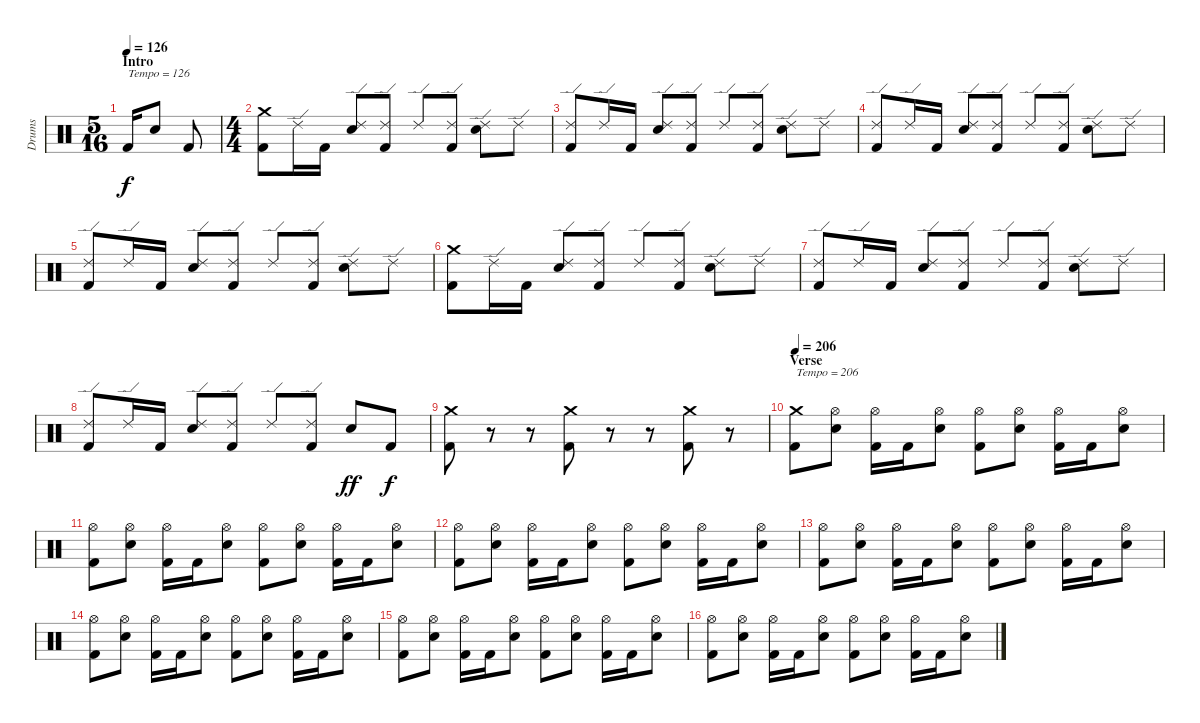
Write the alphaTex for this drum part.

\track ("Drums" "Drums") {instrument percussion}
\staff {score}
\articulation defaults
\ts (5 16)
\section ("" "Intro")
\tempo 126
\clef neutral
\ks c "Kick (hit) 2".16{txt "Tempo = 126" dy f} "Electric Snare (hit)".8 "Kick (hit) 2".8
|
\ts (4 4)
("Crash medium (hit)" "Kick (hit) 2").8 "Ride (edge) 2".16 "Kick (hit) 2".16 ("Ride (edge) 2" "Electric Snare (hit)").8 ("Ride (edge) 2" "Kick (hit) 2").8 "Ride (edge) 2".8 ("Ride (edge) 2" "Kick (hit) 2").8 ("Ride (edge) 2" "Electric Snare (hit)").8 "Ride (edge) 2".8 |
("Ride (edge) 2" "Kick (hit) 2").8 "Ride (edge) 2".16 "Kick (hit) 2".16 ("Ride (edge) 2" "Electric Snare (hit)").8 ("Ride (edge) 2" "Kick (hit) 2").8 "Ride (edge) 2".8 ("Ride (edge) 2" "Kick (hit) 2").8 ("Ride (edge) 2" "Electric Snare (hit)").8 "Ride (edge) 2".8 |
("Ride (edge) 2" "Kick (hit) 2").8 "Ride (edge) 2".16 "Kick (hit) 2".16 ("Ride (edge) 2" "Electric Snare (hit)").8 ("Ride (edge) 2" "Kick (hit) 2").8 "Ride (edge) 2".8 ("Ride (edge) 2" "Kick (hit) 2").8 ("Ride (edge) 2" "Electric Snare (hit)").8 "Ride (edge) 2".8 |
("Ride (edge) 2" "Kick (hit) 2").8 "Ride (edge) 2".16 "Kick (hit) 2".16 ("Ride (edge) 2" "Electric Snare (hit)").8 ("Ride (edge) 2" "Kick (hit) 2").8 "Ride (edge) 2".8 ("Ride (edge) 2" "Kick (hit) 2").8 ("Ride (edge) 2" "Electric Snare (hit)").8 "Ride (edge) 2".8 |
("Crash medium (hit)" "Kick (hit) 2").8 "Ride (edge) 2".16 "Kick (hit) 2".16 ("Ride (edge) 2" "Electric Snare (hit)").8 ("Ride (edge) 2" "Kick (hit) 2").8 "Ride (edge) 2".8 ("Ride (edge) 2" "Kick (hit) 2").8 ("Ride (edge) 2" "Electric Snare (hit)").8 "Ride (edge) 2".8 |
("Ride (edge) 2" "Kick (hit) 2").8 "Ride (edge) 2".16 "Kick (hit) 2".16 ("Ride (edge) 2" "Electric Snare (hit)").8 ("Ride (edge) 2" "Kick (hit) 2").8 "Ride (edge) 2".8 ("Ride (edge) 2" "Kick (hit) 2").8 ("Ride (edge) 2" "Electric Snare (hit)").8 "Ride (edge) 2".8 |
("Ride (edge) 2" "Kick (hit) 2").8 "Ride (edge) 2".16 "Kick (hit) 2".16 ("Ride (edge) 2" "Electric Snare (hit)").8 ("Ride (edge) 2" "Kick (hit) 2").8 "Ride (edge) 2".8 ("Ride (edge) 2" "Kick (hit) 2").8 "Electric Snare (hit)".8{dy ff} "Kick (hit) 2".8{dy f} |
("Crash medium (hit)" "Kick (hit) 2").8 r.8 r.8 ("Crash medium (hit)" "Kick (hit) 2").8 r.8 r.8 ("Crash medium (hit)" "Kick (hit) 2").8 r.8 |
\section ("" "Verse")
\tempo 206
("Crash medium (hit)" "Kick (hit) 2").8{txt "Tempo = 206"} ("Hi-Hat (open)" "Electric Snare (hit)").8 ("Hi-Hat (open)" "Kick (hit) 2").16 "Kick (hit) 2".16 ("Hi-Hat (open)" "Electric Snare (hit)").8 ("Hi-Hat (open)" "Kick (hit) 2").8 ("Hi-Hat (open)" "Electric Snare (hit)").8 ("Hi-Hat (open)" "Kick (hit) 2").16 "Kick (hit) 2".16 ("Hi-Hat (open)" "Electric Snare (hit)").8 |
("Hi-Hat (open)" "Kick (hit) 2").8 ("Hi-Hat (open)" "Electric Snare (hit)").8 ("Hi-Hat (open)" "Kick (hit) 2").16 "Kick (hit) 2".16 ("Hi-Hat (open)" "Electric Snare (hit)").8 ("Hi-Hat (open)" "Kick (hit) 2").8 ("Hi-Hat (open)" "Electric Snare (hit)").8 ("Hi-Hat (open)" "Kick (hit) 2").16 "Kick (hit) 2".16 ("Hi-Hat (open)" "Electric Snare (hit)").8 |
("Hi-Hat (open)" "Kick (hit) 2").8 ("Hi-Hat (open)" "Electric Snare (hit)").8 ("Hi-Hat (open)" "Kick (hit) 2").16 "Kick (hit) 2".16 ("Hi-Hat (open)" "Electric Snare (hit)").8 ("Hi-Hat (open)" "Kick (hit) 2").8 ("Hi-Hat (open)" "Electric Snare (hit)").8 ("Hi-Hat (open)" "Kick (hit) 2").16 "Kick (hit) 2".16 ("Hi-Hat (open)" "Electric Snare (hit)").8 |
("Hi-Hat (open)" "Kick (hit) 2").8 ("Hi-Hat (open)" "Electric Snare (hit)").8 ("Hi-Hat (open)" "Kick (hit) 2").16 "Kick (hit) 2".16 ("Hi-Hat (open)" "Electric Snare (hit)").8 ("Hi-Hat (open)" "Kick (hit) 2").8 ("Hi-Hat (open)" "Electric Snare (hit)").8 ("Hi-Hat (open)" "Kick (hit) 2").16 "Kick (hit) 2".16 ("Hi-Hat (open)" "Electric Snare (hit)").8 |
("Hi-Hat (open)" "Kick (hit) 2").8 ("Hi-Hat (open)" "Electric Snare (hit)").8 ("Hi-Hat (open)" "Kick (hit) 2").16 "Kick (hit) 2".16 ("Hi-Hat (open)" "Electric Snare (hit)").8 ("Hi-Hat (open)" "Kick (hit) 2").8 ("Hi-Hat (open)" "Electric Snare (hit)").8 ("Hi-Hat (open)" "Kick (hit) 2").16 "Kick (hit) 2".16 ("Hi-Hat (open)" "Electric Snare (hit)").8 |
("Hi-Hat (open)" "Kick (hit) 2").8 ("Hi-Hat (open)" "Electric Snare (hit)").8 ("Hi-Hat (open)" "Kick (hit) 2").16 "Kick (hit) 2".16 ("Hi-Hat (open)" "Electric Snare (hit)").8 ("Hi-Hat (open)" "Kick (hit) 2").8 ("Hi-Hat (open)" "Electric Snare (hit)").8 ("Hi-Hat (open)" "Kick (hit) 2").16 "Kick (hit) 2".16 ("Hi-Hat (open)" "Electric Snare (hit)").8 |
("Hi-Hat (open)" "Kick (hit) 2").8 ("Hi-Hat (open)" "Electric Snare (hit)").8 ("Hi-Hat (open)" "Kick (hit) 2").16 "Kick (hit) 2".16 ("Hi-Hat (open)" "Electric Snare (hit)").8 ("Hi-Hat (open)" "Kick (hit) 2").8 ("Hi-Hat (open)" "Electric Snare (hit)").8 ("Hi-Hat (open)" "Kick (hit) 2").16 "Kick (hit) 2".16 ("Hi-Hat (open)" "Electric Snare (hit)").8
